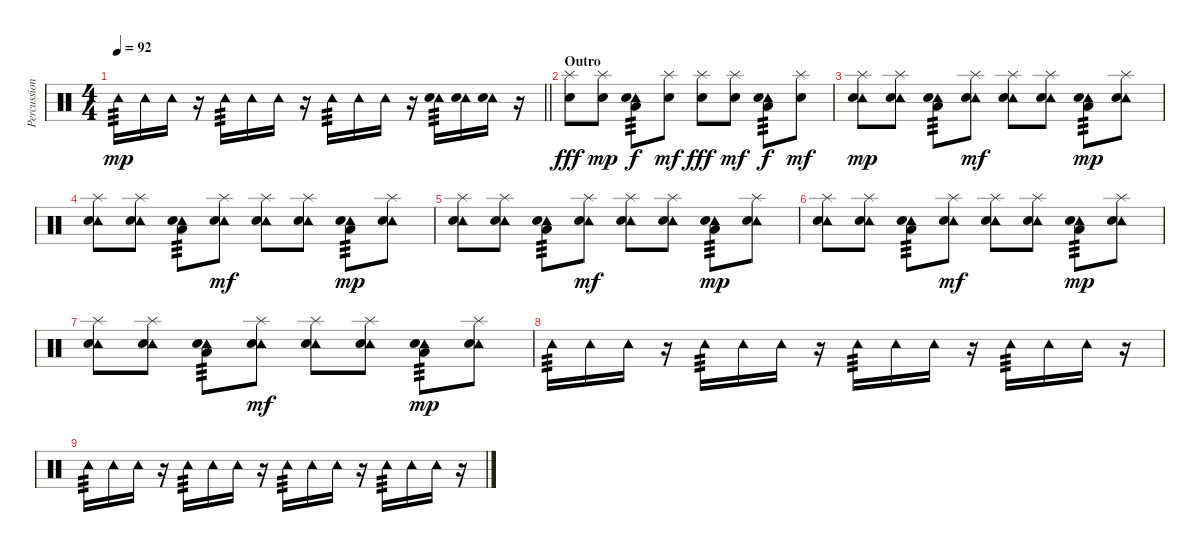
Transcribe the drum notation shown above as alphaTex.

\track ("Percussion" "Percussion") {instrument percussion}
\staff {score}
\articulation defaults
\ts (4 4)
\tempo 92
\clef neutral
\barLineRight lightlight
\ks c "Tambourine (hit)".16{tp 3 dy mp} "Tambourine (hit)".16 "Tambourine (hit)".16
r.16 "Tambourine (hit)".16{tp 3} "Tambourine (hit)".16 "Tambourine (hit)".16 r.16 "Tambourine (hit)".16{tp 3} "Tambourine (hit)".16 "Tambourine (hit)".16 r.16 ("Tambourine (hit)" "Snare (hit) 2").16{tp 3} ("Tambourine (hit)" "Snare (hit) 2").16 ("Tambourine (hit)" "Snare (hit) 2").16 r.16 |
\section ("" "Outro")
("Splash (hit)" "Snare (hit) 2").8{dy fff} ("Splash (hit)" "Snare (hit) 2").8{dy mp} ("Tambourine (hit)" "Low Floor Tom (hit)" "Snare (hit) 2").8{tp 3 dy f} ("Splash (hit)" "Snare (hit) 2").8{dy mf} ("Splash (hit)" "Snare (hit) 2").8{dy fff} ("Splash (hit)" "Snare (hit) 2").8{dy mf} ("Tambourine (hit)" "Low Floor Tom (hit)" "Snare (hit) 2").8{tp 3 dy f} ("Splash (hit)" "Snare (hit) 2").8{dy mf} |
("Tambourine (hit)" "Splash (hit)" "Snare (hit) 2").8{dy mp} ("Tambourine (hit)" "Splash (hit)" "Snare (hit) 2").8 ("Tambourine (hit)" "Low Floor Tom (hit)" "Snare (hit) 2").8{tp 3} ("Tambourine (hit)" "Splash (hit)" "Snare (hit) 2").8{dy mf} ("Tambourine (hit)" "Splash (hit)" "Snare (hit) 2").8 ("Tambourine (hit)" "Splash (hit)" "Snare (hit) 2").8 ("Tambourine (hit)" "Low Floor Tom (hit)" "Snare (hit) 2").8{tp 3 dy mp} ("Tambourine (hit)" "Splash (hit)" "Snare (hit) 2").8 |
("Tambourine (hit)" "Splash (hit)" "Snare (hit) 2").8 ("Tambourine (hit)" "Splash (hit)" "Snare (hit) 2").8 ("Tambourine (hit)" "Low Floor Tom (hit)" "Snare (hit) 2").8{tp 3} ("Tambourine (hit)" "Splash (hit)" "Snare (hit) 2").8{dy mf} ("Tambourine (hit)" "Splash (hit)" "Snare (hit) 2").8 ("Tambourine (hit)" "Splash (hit)" "Snare (hit) 2").8 ("Tambourine (hit)" "Low Floor Tom (hit)" "Snare (hit) 2").8{tp 3 dy mp} ("Tambourine (hit)" "Splash (hit)" "Snare (hit) 2").8 |
("Tambourine (hit)" "Splash (hit)" "Snare (hit) 2").8 ("Tambourine (hit)" "Splash (hit)" "Snare (hit) 2").8 ("Tambourine (hit)" "Low Floor Tom (hit)" "Snare (hit) 2").8{tp 3} ("Tambourine (hit)" "Splash (hit)" "Snare (hit) 2").8{dy mf} ("Tambourine (hit)" "Splash (hit)" "Snare (hit) 2").8 ("Tambourine (hit)" "Splash (hit)" "Snare (hit) 2").8 ("Tambourine (hit)" "Low Floor Tom (hit)" "Snare (hit) 2").8{tp 3 dy mp} ("Tambourine (hit)" "Splash (hit)" "Snare (hit) 2").8 |
("Tambourine (hit)" "Splash (hit)" "Snare (hit) 2").8{volume 0} ("Tambourine (hit)" "Splash (hit)" "Snare (hit) 2").8 ("Tambourine (hit)" "Low Floor Tom (hit)" "Snare (hit) 2").8{tp 3} ("Tambourine (hit)" "Splash (hit)" "Snare (hit) 2").8{dy mf} ("Tambourine (hit)" "Splash (hit)" "Snare (hit) 2").8 ("Tambourine (hit)" "Splash (hit)" "Snare (hit) 2").8 ("Tambourine (hit)" "Low Floor Tom (hit)" "Snare (hit) 2").8{tp 3 dy mp} ("Tambourine (hit)" "Splash (hit)" "Snare (hit) 2").8 |
("Tambourine (hit)" "Splash (hit)" "Snare (hit) 2").8 ("Tambourine (hit)" "Splash (hit)" "Snare (hit) 2").8 ("Tambourine (hit)" "Low Floor Tom (hit)" "Snare (hit) 2").8{tp 3} ("Tambourine (hit)" "Splash (hit)" "Snare (hit) 2").8{dy mf} ("Tambourine (hit)" "Splash (hit)" "Snare (hit) 2").8 ("Tambourine (hit)" "Splash (hit)" "Snare (hit) 2").8 ("Tambourine (hit)" "Low Floor Tom (hit)" "Snare (hit) 2").8{tp 3 dy mp} ("Tambourine (hit)" "Splash (hit)" "Snare (hit) 2").8 |
"Tambourine (hit)".16{tp 3} "Tambourine (hit)".16 "Tambourine (hit)".16 r.16 "Tambourine (hit)".16{tp 3} "Tambourine (hit)".16 "Tambourine (hit)".16 r.16 "Tambourine (hit)".16{tp 3} "Tambourine (hit)".16 "Tambourine (hit)".16 r.16 "Tambourine (hit)".16{tp 3} "Tambourine (hit)".16 "Tambourine (hit)".16 r.16 |
"Tambourine (hit)".16{tp 3} "Tambourine (hit)".16 "Tambourine (hit)".16 r.16 "Tambourine (hit)".16{tp 3} "Tambourine (hit)".16 "Tambourine (hit)".16 r.16 "Tambourine (hit)".16{tp 3} "Tambourine (hit)".16 "Tambourine (hit)".16 r.16 "Tambourine (hit)".16{tp 3} "Tambourine (hit)".16 "Tambourine (hit)".16 r.16
